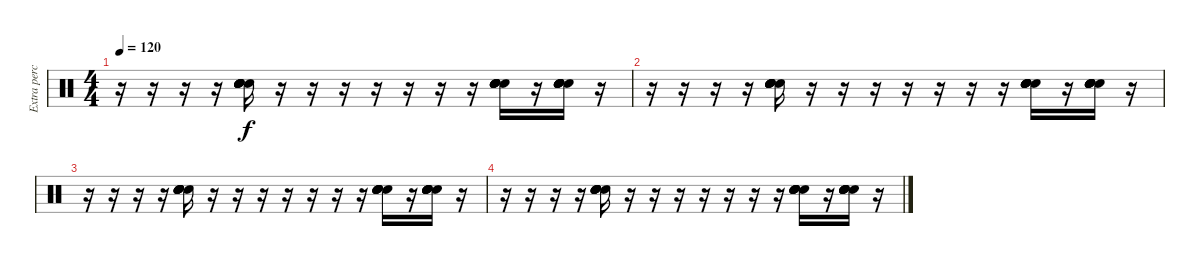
\track ("Extra percussion" "Extra perc") {instrument percussion}
\staff {score}
\articulation defaults
\ts (4 4)
\tempo 120
\clef neutral
\ks c
r.16{dy f} r.16 r.16 r.16 ("Hand Clap (hit)" "Hand Clap (hit)" "Hand Clap (hit)" "Hand Clap (hit)" "Hand Clap (hit)" "Hand Clap (hit)").16 r.16 r.16 r.16 r.16 r.16 r.16 r.16 ("Hand Clap (hit)" "Hand Clap (hit)" "Hand Clap (hit)" "Hand Clap (hit)" "Hand Clap (hit)" "Hand Clap (hit)").16 r.16 ("Hand Clap (hit)" "Hand Clap (hit)" "Hand Clap (hit)" "Hand Clap (hit)" "Hand Clap (hit)" "Hand Clap (hit)").16 r.16 |
r.16 r.16 r.16 r.16 ("Hand Clap (hit)" "Hand Clap (hit)" "Hand Clap (hit)" "Hand Clap (hit)" "Hand Clap (hit)" "Hand Clap (hit)").16 r.16 r.16 r.16 r.16 r.16 r.16 r.16 ("Hand Clap (hit)" "Hand Clap (hit)" "Hand Clap (hit)" "Hand Clap (hit)" "Hand Clap (hit)" "Hand Clap (hit)").16 r.16 ("Hand Clap (hit)" "Hand Clap (hit)" "Hand Clap (hit)" "Hand Clap (hit)" "Hand Clap (hit)" "Hand Clap (hit)").16 r.16 |
r.16 r.16 r.16 r.16 ("Hand Clap (hit)" "Hand Clap (hit)" "Hand Clap (hit)" "Hand Clap (hit)" "Hand Clap (hit)" "Hand Clap (hit)").16 r.16 r.16 r.16 r.16 r.16 r.16 r.16 ("Hand Clap (hit)" "Hand Clap (hit)" "Hand Clap (hit)" "Hand Clap (hit)" "Hand Clap (hit)" "Hand Clap (hit)").16 r.16 ("Hand Clap (hit)" "Hand Clap (hit)" "Hand Clap (hit)" "Hand Clap (hit)" "Hand Clap (hit)" "Hand Clap (hit)").16 r.16 |
r.16 r.16 r.16 r.16 ("Hand Clap (hit)" "Hand Clap (hit)" "Hand Clap (hit)" "Hand Clap (hit)" "Hand Clap (hit)" "Hand Clap (hit)").16 r.16 r.16 r.16 r.16 r.16 r.16 r.16 ("Hand Clap (hit)" "Hand Clap (hit)" "Hand Clap (hit)" "Hand Clap (hit)" "Hand Clap (hit)" "Hand Clap (hit)").16 r.16 ("Hand Clap (hit)" "Hand Clap (hit)" "Hand Clap (hit)" "Hand Clap (hit)" "Hand Clap (hit)" "Hand Clap (hit)").16 r.16
